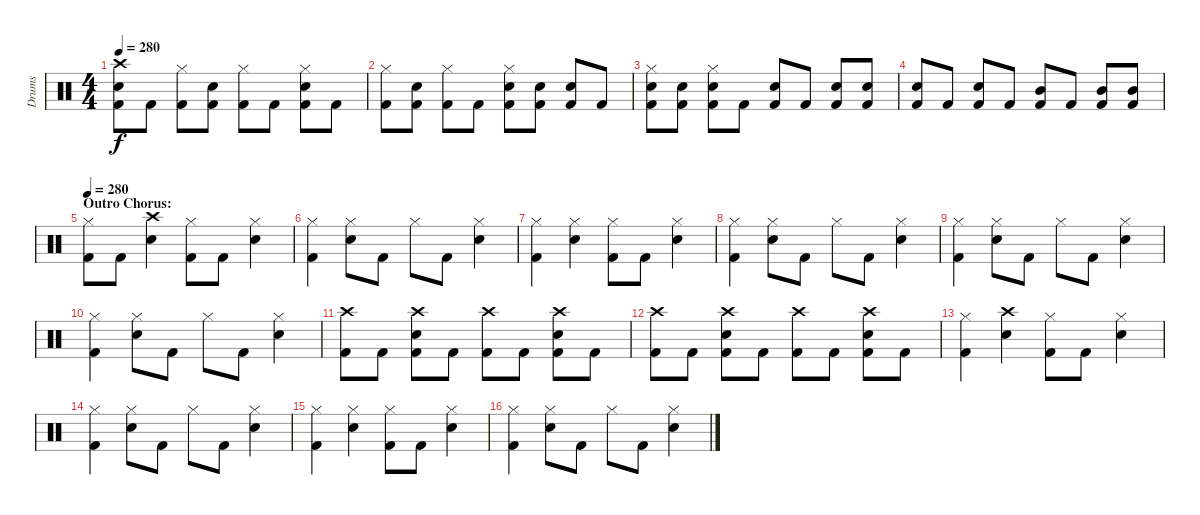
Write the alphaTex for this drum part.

\track ("Drums" "Drums") {instrument percussion}
\staff {score}
\articulation defaults
\ts (4 4)
\tempo 280
\clef neutral
\ks c
("Crash high (hit)" "Snare (hit) 2" "Kick (hit) 2").8{dy f} "Kick (hit) 2".8 ("Hi-Hat (closed)" "Kick (hit) 2").8 ("Snare (hit) 2" "Kick (hit) 2").8 ("Hi-Hat (closed)" "Kick (hit) 2").8 "Kick (hit) 2".8 ("Hi-Hat (closed)" "Snare (hit) 2" "Kick (hit) 2").8 "Kick (hit) 2".8 |
("Hi-Hat (closed)" "Kick (hit) 2").8 ("Snare (hit) 2" "Kick (hit) 2").8 ("Hi-Hat (closed)" "Kick (hit) 2").8 "Kick (hit) 2".8 ("Hi-Hat (closed)" "Snare (hit) 2" "Kick (hit) 2").8 ("Snare (hit) 2" "Kick (hit) 2").8 ("Snare (hit) 2" "Kick (hit) 2").8 "Kick (hit) 2".8 |
("Hi-Hat (closed)" "Snare (hit) 2" "Kick (hit) 2").8 ("Snare (hit) 2" "Kick (hit) 2").8 ("Hi-Hat (closed)" "Snare (hit) 2" "Kick (hit) 2").8 "Kick (hit) 2".8 ("Snare (hit) 2" "Kick (hit) 2").8 "Kick (hit) 2".8 ("Snare (hit) 2" "Kick (hit) 2").8 ("Snare (hit) 2" "Kick (hit) 2").8 |
("Snare (hit) 2" "Kick (hit) 2").8 "Kick (hit) 2".8 ("Snare (hit) 2" "Kick (hit) 2").8 "Kick (hit) 2".8 ("Mid Tom (hit)" "Kick (hit) 2").8 "Kick (hit) 2".8 ("Mid Tom (hit)" "Kick (hit) 2").8 ("Mid Tom (hit)" "Kick (hit) 2").8 |
\section ("" "Outro Chorus:")
\tempo 280
("Hi-Hat (closed)" "Kick (hit) 2").8 "Kick (hit) 2".8 ("Crash high (hit)" "Snare (hit) 2").4 ("Hi-Hat (closed)" "Kick (hit) 2").8 "Kick (hit) 2".8 ("Hi-Hat (closed)" "Snare (hit) 2").4 |
("Hi-Hat (closed)" "Kick (hit) 2").4 ("Hi-Hat (closed)" "Snare (hit) 2").8 "Kick (hit) 2".8 "Hi-Hat (closed)".8 "Kick (hit) 2".8 ("Hi-Hat (closed)" "Snare (hit) 2").4 |
("Hi-Hat (closed)" "Kick (hit) 2").4 ("Hi-Hat (closed)" "Snare (hit) 2").4 ("Hi-Hat (closed)" "Kick (hit) 2").8 "Kick (hit) 2".8 ("Hi-Hat (closed)" "Snare (hit) 2").4 |
("Hi-Hat (closed)" "Kick (hit) 2").4 ("Hi-Hat (closed)" "Snare (hit) 2").8 "Kick (hit) 2".8 "Hi-Hat (closed)".8 "Kick (hit) 2".8 ("Hi-Hat (closed)" "Snare (hit) 2").4 |
("Hi-Hat (closed)" "Kick (hit) 2").4 ("Hi-Hat (closed)" "Snare (hit) 2").8 "Kick (hit) 2".8 "Hi-Hat (closed)".8 "Kick (hit) 2".8 ("Hi-Hat (closed)" "Snare (hit) 2").4 |
("Hi-Hat (closed)" "Kick (hit) 2").4 ("Hi-Hat (closed)" "Snare (hit) 2").8 "Kick (hit) 2".8 "Hi-Hat (closed)".8 "Kick (hit) 2".8 ("Hi-Hat (closed)" "Snare (hit) 2").4 |
("Crash high (hit)" "Kick (hit) 2").8 "Kick (hit) 2".8 ("Crash high (hit)" "Snare (hit) 2" "Kick (hit) 2").8 "Kick (hit) 2".8 ("Crash high (hit)" "Kick (hit) 2").8 "Kick (hit) 2".8 ("Crash high (hit)" "Snare (hit) 2" "Kick (hit) 2").8 "Kick (hit) 2".8 |
("Crash high (hit)" "Kick (hit) 2").8 "Kick (hit) 2".8 ("Crash high (hit)" "Snare (hit) 2" "Kick (hit) 2").8 "Kick (hit) 2".8 ("Crash high (hit)" "Kick (hit) 2").8 "Kick (hit) 2".8 ("Crash high (hit)" "Snare (hit) 2" "Kick (hit) 2").8 "Kick (hit) 2".8 |
("Hi-Hat (closed)" "Kick (hit) 2").4 ("Crash high (hit)" "Snare (hit) 2").4 ("Hi-Hat (closed)" "Kick (hit) 2").8 "Kick (hit) 2".8 ("Hi-Hat (closed)" "Snare (hit) 2").4 |
("Hi-Hat (closed)" "Kick (hit) 2").4 ("Hi-Hat (closed)" "Snare (hit) 2").8 "Kick (hit) 2".8 "Hi-Hat (closed)".8 "Kick (hit) 2".8 ("Hi-Hat (closed)" "Snare (hit) 2").4 |
("Hi-Hat (closed)" "Kick (hit) 2").4 ("Hi-Hat (closed)" "Snare (hit) 2").4 ("Hi-Hat (closed)" "Kick (hit) 2").8 "Kick (hit) 2".8 ("Hi-Hat (closed)" "Snare (hit) 2").4 |
("Hi-Hat (closed)" "Kick (hit) 2").4 ("Hi-Hat (closed)" "Snare (hit) 2").8 "Kick (hit) 2".8 "Hi-Hat (closed)".8 "Kick (hit) 2".8 ("Hi-Hat (closed)" "Snare (hit) 2").4
